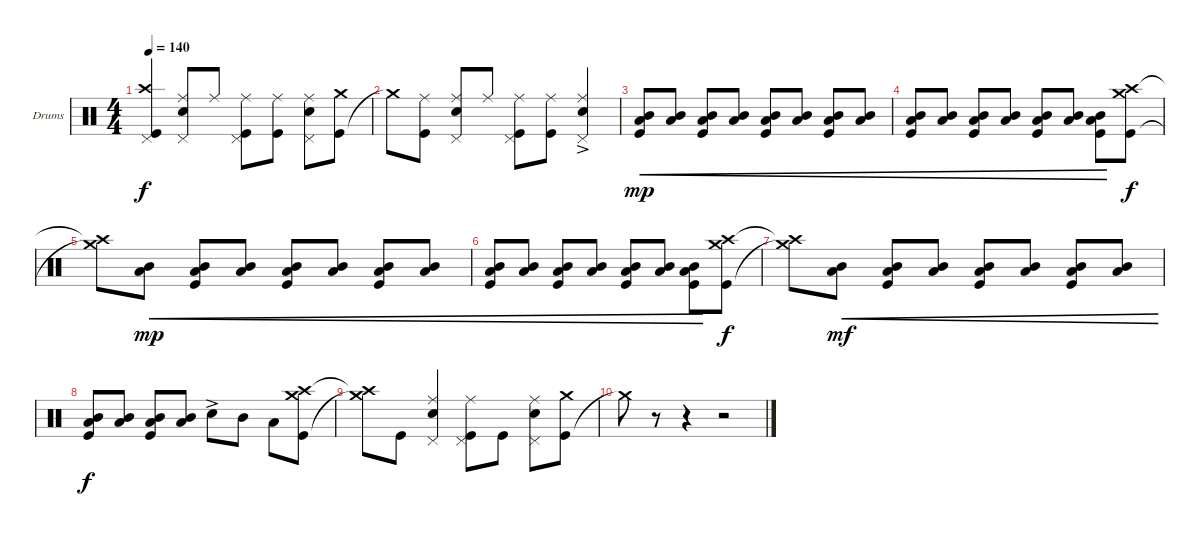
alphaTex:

\defaultSystemsLayout 4
\bracketExtendMode groupsimilarinstruments
\firstSystemTrackNameOrientation horizontal
\otherSystemsTrackNameOrientation horizontal
\track ("Steve" "Drums") {instrument percussion}
\staff {score}
\articulation defaults
\ts (4 4)
\tempo 140
\clef neutral
\ks c
("Kick (hit)" "Crash high (hit)" "Pedal Hi-Hat (hit)").4{dy f} ("Snare (hit) 2" "Ride (middle)" "Pedal Hi-Hat (hit)").8 "Ride (middle)".8 ("Kick (hit)" "Ride (middle)" "Pedal Hi-Hat (hit)").8 ("Kick (hit)" "Ride (middle)").8 ("Snare (hit) 2" "Ride (middle)" "Pedal Hi-Hat (hit)").8 ("Kick (hit)" "Crash medium (hit)").8 |
"Crash medium (hit)"{t}.8 ("Kick (hit)" "Ride (middle)").8 ("Snare (hit) 2" "Ride (middle)" "Pedal Hi-Hat (hit)").8 "Ride (middle)".8 ("Kick (hit)" "Ride (middle)" "Pedal Hi-Hat (hit)").8 ("Kick (hit)" "Ride (middle)").8 ("Snare (hit) 2"{ac} "Pedal Hi-Hat (hit)" "Ride (middle)").4 |
("Mid Tom (hit)" "Kick (hit)" "Low Tom (hit)").8{cre dy mp} ("Mid Tom (hit)" "Low Tom (hit)").8{cre} ("Mid Tom (hit)" "Kick (hit)" "Low Tom (hit)").8{cre} ("Mid Tom (hit)" "Low Tom (hit)").8{cre} ("Mid Tom (hit)" "Kick (hit)" "Low Tom (hit)").8{cre} ("Mid Tom (hit)" "Low Tom (hit)").8{cre} ("Mid Tom (hit)" "Kick (hit)" "Low Tom (hit)").8{cre} ("Mid Tom (hit)" "Low Tom (hit)").8{cre} |
("Mid Tom (hit)" "Kick (hit)" "Low Tom (hit)").8{cre} ("Mid Tom (hit)" "Low Tom (hit)").8{cre} ("Mid Tom (hit)" "Kick (hit)" "Low Tom (hit)").8{cre} ("Mid Tom (hit)" "Low Tom (hit)").8{cre} ("Mid Tom (hit)" "Kick (hit)" "Low Tom (hit)").8{cre} ("Mid Tom (hit)" "Low Tom (hit)").8{cre} ("Mid Tom (hit)" "Kick (hit)" "Low Tom (hit)").8{cre} ("Kick (hit)" "Crash high (hit)" "Crash medium (hit)").8{dy f} |
("Crash medium (hit)"{t} "Crash high (hit)"{t}).8 ("Mid Tom (hit)" "Low Tom (hit)").8{cre dy mp} ("Mid Tom (hit)" "Kick (hit)" "Low Tom (hit)").8{cre} ("Mid Tom (hit)" "Low Tom (hit)").8{cre} ("Mid Tom (hit)" "Kick (hit)" "Low Tom (hit)").8{cre} ("Mid Tom (hit)" "Low Tom (hit)").8{cre} ("Mid Tom (hit)" "Kick (hit)" "Low Tom (hit)").8{cre} ("Mid Tom (hit)" "Low Tom (hit)").8{cre} |
("Mid Tom (hit)" "Kick (hit)" "Low Tom (hit)").8{cre} ("Mid Tom (hit)" "Low Tom (hit)").8{cre} ("Mid Tom (hit)" "Kick (hit)" "Low Tom (hit)").8{cre} ("Mid Tom (hit)" "Low Tom (hit)").8{cre} ("Mid Tom (hit)" "Kick (hit)" "Low Tom (hit)").8{cre} ("Mid Tom (hit)" "Low Tom (hit)").8{cre} ("Mid Tom (hit)" "Kick (hit)" "Low Tom (hit)").8{cre} ("Kick (hit)" "Crash high (hit)" "Crash medium (hit)").8{dy f} |
("Crash medium (hit)"{t} "Crash high (hit)"{t}).8 ("Mid Tom (hit)" "Low Tom (hit)").8{cre dy mf} ("Mid Tom (hit)" "Kick (hit)" "Low Tom (hit)").8{cre} ("Mid Tom (hit)" "Low Tom (hit)").8{cre} ("Mid Tom (hit)" "Kick (hit)" "Low Tom (hit)").8{cre} ("Mid Tom (hit)" "Low Tom (hit)").8{cre} ("Mid Tom (hit)" "Kick (hit)" "Low Tom (hit)").8{cre} ("Mid Tom (hit)" "Low Tom (hit)").8{cre} |
("Mid Tom (hit)" "Kick (hit)" "Low Tom (hit)").8{dy f} ("Mid Tom (hit)" "Low Tom (hit)").8 ("Mid Tom (hit)" "Kick (hit)" "Low Tom (hit)").8 ("Mid Tom (hit)" "Low Tom (hit)").8 "Snare (hit) 2"{ac}.8 "Mid Tom (hit)".8 "Low Tom (hit)".8 ("Kick (hit)" "Crash high (hit)" "Crash medium (hit)").8 |
("Crash medium (hit)"{t} "Crash high (hit)"{t}).8 "Kick (hit)".8 ("Snare (hit) 2" "Ride (middle)" "Pedal Hi-Hat (hit)").4 ("Kick (hit)" "Ride (middle)" "Pedal Hi-Hat (hit)").8 "Kick (hit)".8 ("Snare (hit) 2" "Ride (middle)" "Pedal Hi-Hat (hit)").8 ("Kick (hit)" "Crash medium (hit)").8 |
"Crash medium (hit)"{t}.8 r.8 r.4 r.2
